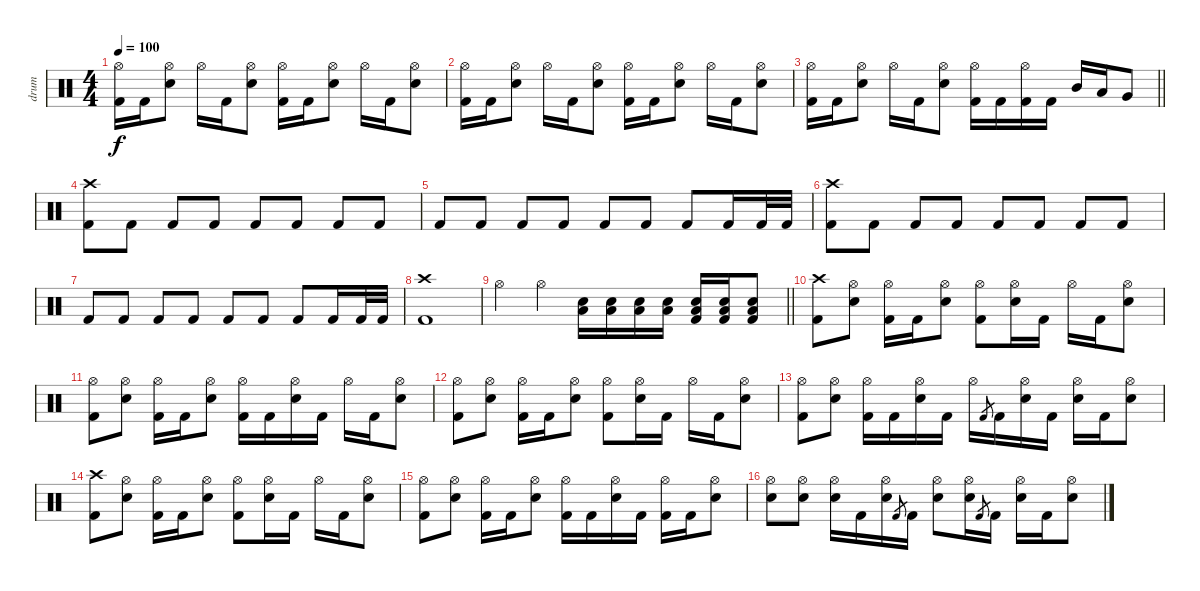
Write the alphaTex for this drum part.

\track ("drum" "drum") {instrument percussion}
\staff {score}
\articulation defaults
\ts (4 4)
\tempo 100
\clef neutral
\ks c
("Hi-Hat (open)" "Kick (hit) 2").16{dy f} "Kick (hit) 2".16 ("Hi-Hat (open)" "Electric Snare (hit)").8 "Hi-Hat (open)".16 "Kick (hit) 2".16 ("Hi-Hat (open)" "Electric Snare (hit)").8 ("Hi-Hat (open)" "Kick (hit) 2").16 "Kick (hit) 2".16 ("Hi-Hat (open)" "Electric Snare (hit)").8 "Hi-Hat (open)".16 "Kick (hit) 2".16 ("Hi-Hat (open)" "Electric Snare (hit)").8 |
("Hi-Hat (open)" "Kick (hit) 2").16 "Kick (hit) 2".16 ("Hi-Hat (open)" "Electric Snare (hit)").8 "Hi-Hat (open)".16 "Kick (hit) 2".16 ("Hi-Hat (open)" "Electric Snare (hit)").8 ("Hi-Hat (open)" "Kick (hit) 2").16 "Kick (hit) 2".16 ("Hi-Hat (open)" "Electric Snare (hit)").8 "Hi-Hat (open)".16 "Kick (hit) 2".16 ("Hi-Hat (open)" "Electric Snare (hit)").8 |
\barLineRight lightlight
("Hi-Hat (open)" "Kick (hit) 2").16 "Kick (hit) 2".16 ("Hi-Hat (open)" "Electric Snare (hit)").8 "Hi-Hat (open)".16 "Kick (hit) 2".16 ("Hi-Hat (open)" "Electric Snare (hit)").8 ("Hi-Hat (open)" "Kick (hit) 2").16 "Kick (hit) 2".16 ("Hi-Hat (open)" "Kick (hit) 2").16 "Kick (hit) 2".16 "Mid Tom (hit)".16 "Low Tom (hit)".16 "Very Low Tom (hit)".8 |
("Crash high (hit)" "Kick (hit) 2").8 "Kick (hit) 2".8 "Kick (hit) 2".8 "Kick (hit) 2".8 "Kick (hit) 2".8 "Kick (hit) 2".8 "Kick (hit) 2".8 "Kick (hit) 2".8 |
"Kick (hit) 2".8 "Kick (hit) 2".8 "Kick (hit) 2".8 "Kick (hit) 2".8 "Kick (hit) 2".8 "Kick (hit) 2".8 "Kick (hit) 2".8 "Kick (hit) 2".16 "Kick (hit) 2".32 "Kick (hit) 2".32 |
("Crash high (hit)" "Kick (hit) 2").8 "Kick (hit) 2".8 "Kick (hit) 2".8 "Kick (hit) 2".8 "Kick (hit) 2".8 "Kick (hit) 2".8 "Kick (hit) 2".8 "Kick (hit) 2".8 |
"Kick (hit) 2".8 "Kick (hit) 2".8 "Kick (hit) 2".8 "Kick (hit) 2".8 "Kick (hit) 2".8 "Kick (hit) 2".8 "Kick (hit) 2".8 "Kick (hit) 2".16 "Kick (hit) 2".32 "Kick (hit) 2".32 |
("Crash high (hit)" "Kick (hit) 2").1 |
\barLineRight lightlight "Hi-Hat (open)".4 "Hi-Hat (open)".4
("Low Floor Tom (hit)" "Electric Snare (hit)").16 ("Low Floor Tom (hit)" "Electric Snare (hit)").16 ("Low Floor Tom (hit)" "Electric Snare (hit)").16 ("Low Floor Tom (hit)" "Electric Snare (hit)").16 ("Low Floor Tom (hit)" "Electric Snare (hit)" "Kick (hit) 2").16 ("Low Floor Tom (hit)" "Electric Snare (hit)" "Kick (hit) 2").16 ("Low Floor Tom (hit)" "Electric Snare (hit)" "Kick (hit) 2").8 |
("Crash high (hit)" "Kick (hit) 2").8 ("Hi-Hat (open)" "Electric Snare (hit)").8 ("Hi-Hat (open)" "Kick (hit) 2").16 "Kick (hit) 2".16 ("Hi-Hat (open)" "Electric Snare (hit)").8 ("Hi-Hat (open)" "Kick (hit) 2").8 ("Hi-Hat (open)" "Electric Snare (hit)").16 "Kick (hit) 2".16 "Hi-Hat (open)".16 "Kick (hit) 2".16 ("Hi-Hat (open)" "Electric Snare (hit)").8 |
("Hi-Hat (open)" "Kick (hit) 2").8 ("Hi-Hat (open)" "Electric Snare (hit)").8 ("Hi-Hat (open)" "Kick (hit) 2").16 "Kick (hit) 2".16 ("Hi-Hat (open)" "Electric Snare (hit)").8 ("Hi-Hat (open)" "Kick (hit) 2").16 "Kick (hit) 2".16 ("Hi-Hat (open)" "Electric Snare (hit)").16 "Kick (hit) 2".16 "Hi-Hat (open)".16 "Kick (hit) 2".16 ("Hi-Hat (open)" "Electric Snare (hit)").8 |
("Hi-Hat (open)" "Kick (hit) 2").8 ("Hi-Hat (open)" "Electric Snare (hit)").8 ("Hi-Hat (open)" "Kick (hit) 2").16 "Kick (hit) 2".16 ("Hi-Hat (open)" "Electric Snare (hit)").8 ("Hi-Hat (open)" "Kick (hit) 2").8 ("Hi-Hat (open)" "Electric Snare (hit)").16 "Kick (hit) 2".16 "Hi-Hat (open)".16 "Kick (hit) 2".16 ("Hi-Hat (open)" "Electric Snare (hit)").8 |
("Hi-Hat (open)" "Kick (hit) 2").8 ("Hi-Hat (open)" "Electric Snare (hit)").8 ("Hi-Hat (open)" "Kick (hit) 2").16 "Kick (hit) 2".16 ("Hi-Hat (open)" "Electric Snare (hit)").16 "Kick (hit) 2".16 "Hi-Hat (open)".16 "Kick (hit) 2".8{gr} "Kick (hit) 2".16 ("Hi-Hat (open)" "Electric Snare (hit)").16 "Kick (hit) 2".16 ("Hi-Hat (open)" "Electric Snare (hit)").16 "Kick (hit) 2".16 ("Hi-Hat (open)" "Electric Snare (hit)").8 |
("Crash high (hit)" "Kick (hit) 2").8 ("Hi-Hat (open)" "Electric Snare (hit)").8 ("Hi-Hat (open)" "Kick (hit) 2").16 "Kick (hit) 2".16 ("Hi-Hat (open)" "Electric Snare (hit)").8 ("Hi-Hat (open)" "Kick (hit) 2").8 ("Hi-Hat (open)" "Electric Snare (hit)").16 "Kick (hit) 2".16 "Hi-Hat (open)".16 "Kick (hit) 2".16 ("Hi-Hat (open)" "Electric Snare (hit)").8 |
("Hi-Hat (open)" "Kick (hit) 2").8 ("Hi-Hat (open)" "Electric Snare (hit)").8 ("Hi-Hat (open)" "Kick (hit) 2").16 "Kick (hit) 2".16 ("Hi-Hat (open)" "Electric Snare (hit)").8 ("Hi-Hat (open)" "Kick (hit) 2").16 "Kick (hit) 2".16 ("Hi-Hat (open)" "Electric Snare (hit)").16 "Kick (hit) 2".16 ("Hi-Hat (open)" "Kick (hit) 2").16 "Kick (hit) 2".16 ("Hi-Hat (open)" "Electric Snare (hit)").8 |
("Hi-Hat (open)" "Electric Snare (hit)").8 ("Hi-Hat (open)" "Electric Snare (hit)").8 ("Hi-Hat (open)" "Electric Snare (hit)").16 "Kick (hit) 2".16 ("Hi-Hat (open)" "Electric Snare (hit)").16 "Kick (hit) 2".8{gr} "Kick (hit) 2".16 ("Hi-Hat (open)" "Electric Snare (hit)").8 ("Hi-Hat (open)" "Electric Snare (hit)").16 "Kick (hit) 2".8{gr} "Kick (hit) 2".16 ("Hi-Hat (open)" "Electric Snare (hit)").16 "Kick (hit) 2".16 ("Hi-Hat (open)" "Electric Snare (hit)").8
